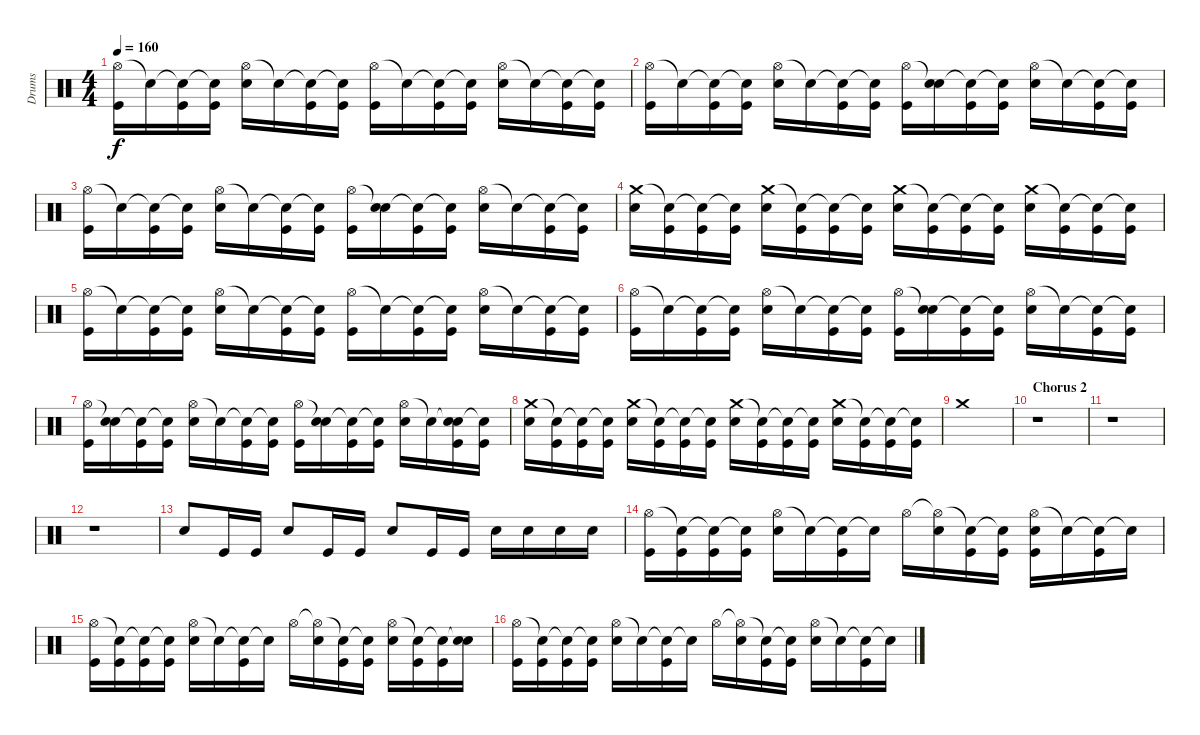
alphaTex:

\track ("Drums" "Drums") {instrument percussion}
\staff {score}
\articulation defaults
\ts (4 4)
\tempo 160
\clef neutral
\ks c
("Hi-Hat (open)" "Kick (hit)").16{dy f} "Snare (hit)"{t}.16 ("Snare (hit)"{t} "Kick (hit)").16 ("Snare (hit)"{t} "Kick (hit)").16 ("Hi-Hat (open)" "Electric Snare (hit)").16 "Snare (hit)"{t}.16 ("Snare (hit)"{t} "Kick (hit)").16 ("Snare (hit)"{t} "Kick (hit)").16 ("Hi-Hat (open)" "Kick (hit)").16 "Snare (hit)"{t}.16 ("Snare (hit)"{t} "Kick (hit)").16 ("Snare (hit)"{t} "Kick (hit)").16 ("Hi-Hat (open)" "Electric Snare (hit)").16 "Snare (hit)"{t}.16 ("Snare (hit)"{t} "Kick (hit)").16 ("Snare (hit)"{t} "Kick (hit)").16 |
("Hi-Hat (open)" "Kick (hit)").16 "Snare (hit)"{t}.16 ("Snare (hit)"{t} "Kick (hit)").16 ("Snare (hit)"{t} "Kick (hit)").16 ("Hi-Hat (open)" "Electric Snare (hit)").16 "Snare (hit)"{t}.16 ("Snare (hit)"{t} "Kick (hit)").16 ("Snare (hit)"{t} "Kick (hit)").16 ("Hi-Hat (open)" "Kick (hit)").16 ("Snare (hit)"{t} "Electric Snare (hit)").16 ("Snare (hit)"{t} "Kick (hit)").16 ("Snare (hit)"{t} "Kick (hit)").16 ("Hi-Hat (open)" "Electric Snare (hit)").16 "Snare (hit)"{t}.16 ("Snare (hit)"{t} "Kick (hit)").16 ("Snare (hit)"{t} "Kick (hit)").16 |
("Hi-Hat (open)" "Kick (hit)").16 "Snare (hit)"{t}.16 ("Snare (hit)"{t} "Kick (hit)").16 ("Snare (hit)"{t} "Kick (hit)").16 ("Hi-Hat (open)" "Electric Snare (hit)").16 "Snare (hit)"{t}.16 ("Snare (hit)"{t} "Kick (hit)").16 ("Snare (hit)"{t} "Kick (hit)").16 ("Hi-Hat (open)" "Kick (hit)").16 ("Snare (hit)"{t} "Electric Snare (hit)").16 ("Snare (hit)"{t} "Kick (hit)").16 ("Snare (hit)"{t} "Kick (hit)").16 ("Hi-Hat (open)" "Electric Snare (hit)").16 "Snare (hit)"{t}.16 ("Snare (hit)"{t} "Kick (hit)").16 ("Snare (hit)"{t} "Kick (hit)").16 |
("Crash medium (hit)" "Electric Snare (hit)").16 ("Snare (hit)"{t} "Kick (hit)").16 ("Snare (hit)"{t} "Kick (hit)").16 ("Snare (hit)"{t} "Kick (hit)").16 ("Crash medium (hit)" "Electric Snare (hit)").16 ("Snare (hit)"{t} "Kick (hit)").16 ("Snare (hit)"{t} "Kick (hit)").16 ("Snare (hit)"{t} "Kick (hit)").16 ("Crash medium (hit)" "Electric Snare (hit)").16 ("Snare (hit)"{t} "Kick (hit)").16 ("Snare (hit)"{t} "Kick (hit)").16 ("Snare (hit)"{t} "Kick (hit)").16 ("Crash medium (hit)" "Electric Snare (hit)").16 ("Snare (hit)"{t} "Kick (hit)").16 ("Snare (hit)"{t} "Kick (hit)").16 ("Snare (hit)"{t} "Kick (hit)").16 |
("Hi-Hat (open)" "Kick (hit)").16 "Snare (hit)"{t}.16 ("Snare (hit)"{t} "Kick (hit)").16 ("Snare (hit)"{t} "Kick (hit)").16 ("Hi-Hat (open)" "Electric Snare (hit)").16 "Snare (hit)"{t}.16 ("Snare (hit)"{t} "Kick (hit)").16 ("Snare (hit)"{t} "Kick (hit)").16 ("Hi-Hat (open)" "Kick (hit)").16 "Snare (hit)"{t}.16 ("Snare (hit)"{t} "Kick (hit)").16 ("Snare (hit)"{t} "Kick (hit)").16 ("Hi-Hat (open)" "Electric Snare (hit)").16 "Snare (hit)"{t}.16 ("Snare (hit)"{t} "Kick (hit)").16 ("Snare (hit)"{t} "Kick (hit)").16 |
("Hi-Hat (open)" "Kick (hit)").16 "Snare (hit)"{t}.16 ("Snare (hit)"{t} "Kick (hit)").16 ("Snare (hit)"{t} "Kick (hit)").16 ("Hi-Hat (open)" "Electric Snare (hit)").16 "Snare (hit)"{t}.16 ("Snare (hit)"{t} "Kick (hit)").16 ("Snare (hit)"{t} "Kick (hit)").16 ("Hi-Hat (open)" "Kick (hit)").16 ("Snare (hit)"{t} "Electric Snare (hit)").16 ("Snare (hit)"{t} "Kick (hit)").16 ("Snare (hit)"{t} "Kick (hit)").16 ("Hi-Hat (open)" "Electric Snare (hit)").16 "Snare (hit)"{t}.16 ("Snare (hit)"{t} "Kick (hit)").16 ("Snare (hit)"{t} "Kick (hit)").16 |
("Hi-Hat (open)" "Kick (hit)").16 ("Snare (hit)"{t} "Electric Snare (hit)").16 ("Snare (hit)"{t} "Kick (hit)").16 ("Snare (hit)"{t} "Kick (hit)").16 ("Hi-Hat (open)" "Electric Snare (hit)").16 "Snare (hit)"{t}.16 ("Snare (hit)"{t} "Kick (hit)").16 ("Snare (hit)"{t} "Kick (hit)").16 ("Hi-Hat (open)" "Kick (hit)").16 ("Snare (hit)"{t} "Electric Snare (hit)").16 ("Snare (hit)"{t} "Kick (hit)").16 ("Snare (hit)"{t} "Kick (hit)").16 ("Hi-Hat (open)" "Electric Snare (hit)").16 "Snare (hit)"{t}.16 ("Snare (hit)"{t} "Electric Snare (hit)" "Kick (hit)").16 ("Snare (hit)"{t} "Kick (hit)").16 |
("Crash medium (hit)" "Electric Snare (hit)").16 ("Snare (hit)"{t} "Kick (hit)").16 ("Snare (hit)"{t} "Kick (hit)").16 ("Snare (hit)"{t} "Kick (hit)").16 ("Crash medium (hit)" "Electric Snare (hit)").16 ("Snare (hit)"{t} "Kick (hit)").16 ("Snare (hit)"{t} "Kick (hit)").16 ("Snare (hit)"{t} "Kick (hit)").16 ("Crash medium (hit)" "Electric Snare (hit)").16 ("Snare (hit)"{t} "Kick (hit)").16 ("Snare (hit)"{t} "Kick (hit)").16 ("Snare (hit)"{t} "Kick (hit)").16 ("Crash medium (hit)" "Electric Snare (hit)").16 ("Snare (hit)"{t} "Kick (hit)").16 ("Snare (hit)"{t} "Kick (hit)").16 ("Snare (hit)"{t} "Kick (hit)").16 |
"Crash medium (hit)".1 |
\section ("" "Chorus 2")
r.1 |
r.1 |
r.1 |
"Electric Snare (hit)".8 "Kick (hit)".16 "Kick (hit)".16 "Electric Snare (hit)".8 "Kick (hit)".16 "Kick (hit)".16 "Electric Snare (hit)".8 "Kick (hit)".16 "Kick (hit)".16 "Electric Snare (hit)".16 "Electric Snare (hit)".16 "Electric Snare (hit)".16 "Electric Snare (hit)".16 |
("Hi-Hat (open)" "Kick (hit)").16 ("Snare (hit)"{t} "Kick (hit)").16 ("Snare (hit)"{t} "Kick (hit)").16 ("Snare (hit)"{t} "Kick (hit)").16 ("Hi-Hat (open)" "Electric Snare (hit)").16 "Snare (hit)"{t}.16 ("Snare (hit)"{t} "Kick (hit)").16 "Snare (hit)"{t}.16 "Hi-Hat (open)".16 ("Hi-Hat (open)"{t} "Electric Snare (hit)").16 ("Snare (hit)"{t} "Kick (hit)").16 ("Snare (hit)"{t} "Kick (hit)").16 ("Hi-Hat (open)" "Electric Snare (hit)" "Kick (hit)").16 "Snare (hit)"{t}.16 ("Snare (hit)"{t} "Kick (hit)").16 "Snare (hit)"{t}.16 |
("Hi-Hat (open)" "Kick (hit)").16 ("Snare (hit)"{t} "Kick (hit)").16 ("Snare (hit)"{t} "Kick (hit)").16 ("Snare (hit)"{t} "Kick (hit)").16 ("Hi-Hat (open)" "Electric Snare (hit)").16 "Snare (hit)"{t}.16 ("Snare (hit)"{t} "Kick (hit)").16 "Snare (hit)"{t}.16 "Hi-Hat (open)".16 ("Hi-Hat (open)"{t} "Electric Snare (hit)").16 ("Snare (hit)"{t} "Kick (hit)").16 ("Snare (hit)"{t} "Kick (hit)").16 ("Hi-Hat (open)" "Electric Snare (hit)").16 ("Snare (hit)"{t} "Kick (hit)").16 ("Snare (hit)"{t} "Kick (hit)").16 ("Snare (hit)"{t} "Electric Snare (hit)").16 |
("Hi-Hat (open)" "Kick (hit)").16 ("Snare (hit)"{t} "Kick (hit)").16 ("Snare (hit)"{t} "Kick (hit)").16 ("Snare (hit)"{t} "Kick (hit)").16 ("Hi-Hat (open)" "Electric Snare (hit)").16 "Snare (hit)"{t}.16 ("Snare (hit)"{t} "Kick (hit)").16 "Snare (hit)"{t}.16 "Hi-Hat (open)".16 ("Hi-Hat (open)"{t} "Electric Snare (hit)").16 ("Snare (hit)"{t} "Kick (hit)").16 ("Snare (hit)"{t} "Kick (hit)").16 ("Hi-Hat (open)" "Electric Snare (hit)").16 "Snare (hit)"{t}.16 ("Snare (hit)"{t} "Kick (hit)").16 "Snare (hit)"{t}.16
